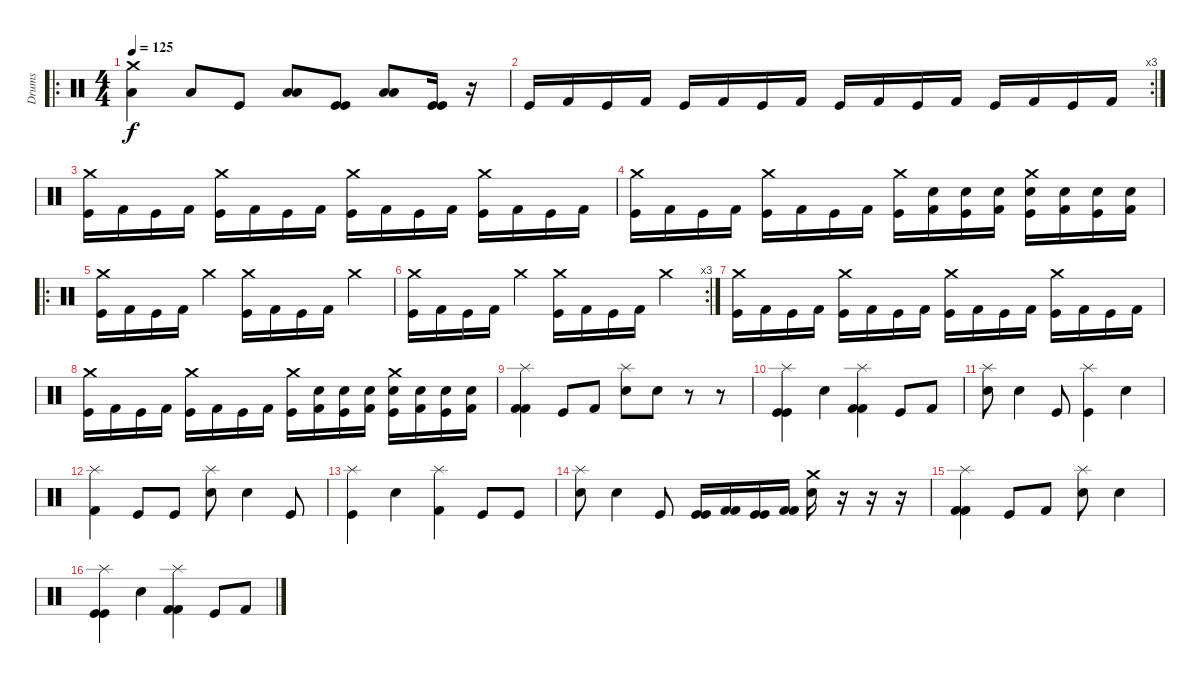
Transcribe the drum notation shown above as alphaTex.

\track ("Drums" "Drums") {instrument percussion}
\staff {score}
\articulation defaults
\ro
\ts (4 4)
\tempo 125
\clef neutral
\ks c
("Crash medium (hit)" "Low Tom (hit)").4{dy f} "Low Tom (hit)".8 "Kick (hit)".8 ("Low Tom (hit)" "Low Tom (hit)").8 ("Kick (hit)" "Kick (hit)").8 ("Low Tom (hit)" "Low Tom (hit)").8 ("Kick (hit)" "Kick (hit)").16 r.16 |
\rc 3 "Kick (hit)".16 "Kick (hit) 2".16 "Kick (hit)".16 "Kick (hit) 2".16 "Kick (hit)".16 "Kick (hit) 2".16 "Kick (hit)".16 "Kick (hit) 2".16 "Kick (hit)".16 "Kick (hit) 2".16 "Kick (hit)".16 "Kick (hit) 2".16 "Kick (hit)".16 "Kick (hit) 2".16 "Kick (hit)".16 "Kick (hit) 2".16
|
("Crash medium (hit)" "Kick (hit)").16 "Kick (hit) 2".16 "Kick (hit)".16 "Kick (hit) 2".16 ("Crash medium (hit)" "Kick (hit)").16 "Kick (hit) 2".16 "Kick (hit)".16 "Kick (hit) 2".16 ("Crash medium (hit)" "Kick (hit)").16 "Kick (hit) 2".16 "Kick (hit)".16 "Kick (hit) 2".16 ("Crash medium (hit)" "Kick (hit)").16 "Kick (hit) 2".16 "Kick (hit)".16 "Kick (hit) 2".16 |
("Crash medium (hit)" "Kick (hit)").16 "Kick (hit) 2".16 "Kick (hit)".16 "Kick (hit) 2".16 ("Crash medium (hit)" "Kick (hit)").16 "Kick (hit) 2".16 "Kick (hit)".16 "Kick (hit) 2".16 ("Crash medium (hit)" "Kick (hit)").16 ("Electric Snare (hit)" "Kick (hit) 2").16 ("Electric Snare (hit)" "Kick (hit)").16 ("Electric Snare (hit)" "Kick (hit) 2").16 ("Electric Snare (hit)" "Crash medium (hit)" "Kick (hit)").16 ("Electric Snare (hit)" "Kick (hit) 2").16 ("Electric Snare (hit)" "Kick (hit)").16 ("Electric Snare (hit)" "Kick (hit) 2").16 |
\ro
("Crash medium (hit)" "Kick (hit)").16 "Kick (hit) 2".16 "Kick (hit)".16 "Kick (hit) 2".16 "Crash medium (hit)".4 ("Crash medium (hit)" "Kick (hit)").16 "Kick (hit) 2".16 "Kick (hit)".16 "Kick (hit) 2".16 "Crash medium (hit)".4 |
\rc 3
("Crash medium (hit)" "Kick (hit)").16 "Kick (hit) 2".16 "Kick (hit)".16 "Kick (hit) 2".16 "Crash medium (hit)".4 ("Crash medium (hit)" "Kick (hit)").16 "Kick (hit) 2".16 "Kick (hit)".16 "Kick (hit) 2".16 "Crash medium (hit)".4 |
("Crash medium (hit)" "Kick (hit)").16 "Kick (hit) 2".16 "Kick (hit)".16 "Kick (hit) 2".16 ("Crash medium (hit)" "Kick (hit)").16 "Kick (hit) 2".16 "Kick (hit)".16 "Kick (hit) 2".16 ("Crash medium (hit)" "Kick (hit)").16 "Kick (hit) 2".16 "Kick (hit)".16 "Kick (hit) 2".16 ("Crash medium (hit)" "Kick (hit)").16 "Kick (hit) 2".16 "Kick (hit)".16 "Kick (hit) 2".16 |
("Crash medium (hit)" "Kick (hit)").16 "Kick (hit) 2".16 "Kick (hit)".16 "Kick (hit) 2".16 ("Crash medium (hit)" "Kick (hit)").16 "Kick (hit) 2".16 "Kick (hit)".16 "Kick (hit) 2".16 ("Crash medium (hit)" "Kick (hit)").16 ("Electric Snare (hit)" "Kick (hit) 2").16 ("Electric Snare (hit)" "Kick (hit)").16 ("Electric Snare (hit)" "Kick (hit) 2").16 ("Electric Snare (hit)" "Crash medium (hit)" "Kick (hit)").16 ("Electric Snare (hit)" "Kick (hit) 2").16 ("Electric Snare (hit)" "Kick (hit)").16 ("Electric Snare (hit)" "Kick (hit) 2").16 |
("Splash (hit)" "Kick (hit) 2" "Kick (hit) 2").4 "Kick (hit)".8 "Kick (hit) 2".8 ("Splash (hit)" "Electric Snare (hit)").8 "Electric Snare (hit)".8 r.8 r.8 |
("Splash (hit)" "Kick (hit)" "Kick (hit)").4 "Electric Snare (hit)".4 ("Splash (hit)" "Kick (hit) 2" "Kick (hit) 2").4 "Kick (hit)".8 "Kick (hit) 2".8 |
("Splash (hit)" "Electric Snare (hit)").8 "Electric Snare (hit)".4 "Kick (hit)".8 ("Splash (hit)" "Kick (hit)").4 "Electric Snare (hit)".4 |
("Splash (hit)" "Kick (hit) 2").4 "Kick (hit)".8 "Kick (hit)".8 ("Splash (hit)" "Electric Snare (hit)").8 "Electric Snare (hit)".4 "Kick (hit)".8 |
("Splash (hit)" "Kick (hit)").4 "Electric Snare (hit)".4 ("Splash (hit)" "Kick (hit) 2").4 "Kick (hit)".8 "Kick (hit)".8 |
("Splash (hit)" "Electric Snare (hit)").8 "Electric Snare (hit)".4 "Kick (hit)".8 ("Kick (hit)" "Kick (hit)").16 ("Kick (hit) 2" "Kick (hit) 2").16 ("Kick (hit)" "Kick (hit)").16 ("Kick (hit) 2" "Kick (hit) 2").16 ("Crash medium (hit)" "Electric Snare (hit)").16 r.16 r.16 r.16 |
("Splash (hit)" "Kick (hit) 2" "Kick (hit) 2").4 "Kick (hit)".8 "Kick (hit) 2".8 ("Splash (hit)" "Electric Snare (hit)").8 "Electric Snare (hit)".4 |
("Splash (hit)" "Kick (hit)" "Kick (hit)").4 "Electric Snare (hit)".4 ("Splash (hit)" "Kick (hit) 2" "Kick (hit) 2").4 "Kick (hit)".8 "Kick (hit) 2".8
